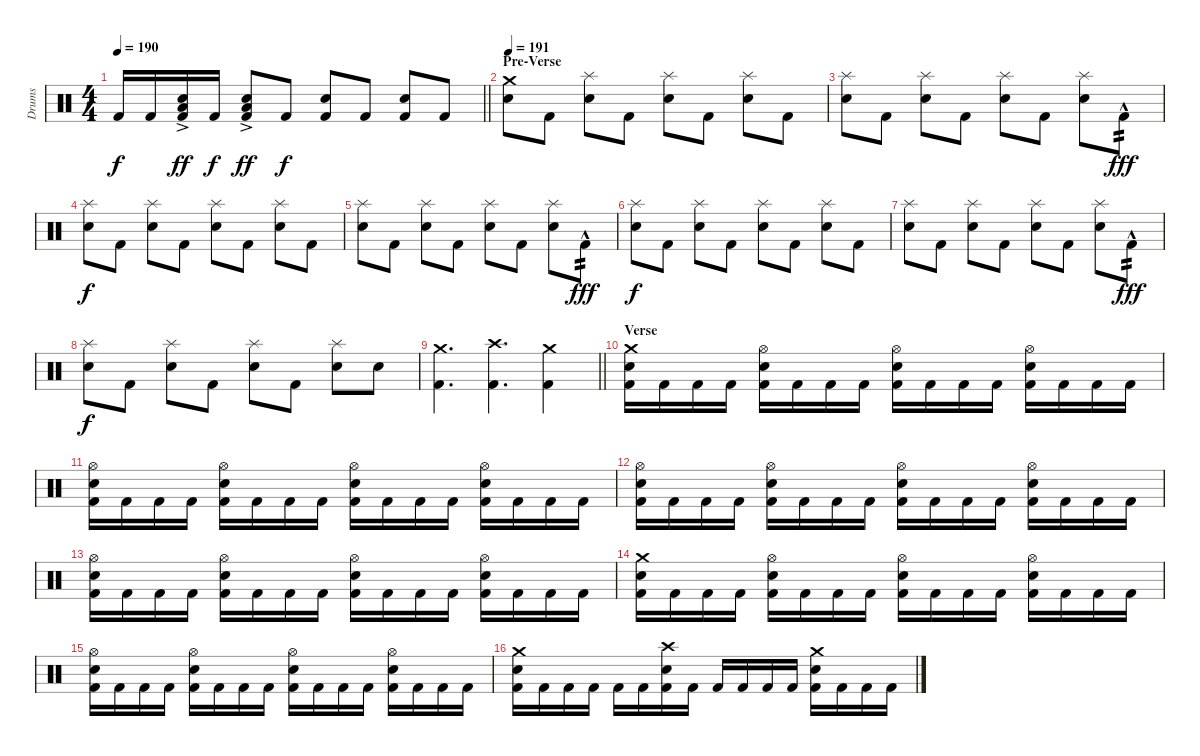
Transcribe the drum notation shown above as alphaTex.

\track ("Drums" "Drums") {instrument percussion}
\staff {score}
\articulation defaults
\ts (4 4)
\tempo 190
\clef neutral
\barLineRight lightlight
\ks c "Kick (hit) 2".16{dy f} "Kick (hit) 2".16
("Kick (hit) 2" "Snare (hit) 2" "Low Floor Tom (hit)"{ac}).16{dy ff} "Kick (hit) 2".16{dy f} ("Kick (hit) 2" "Snare (hit) 2" "Low Floor Tom (hit)"{ac}).8{dy ff} "Kick (hit) 2".8{dy f} ("Kick (hit) 2" "Snare (hit) 2").8 "Kick (hit) 2".8 ("Kick (hit) 2" "Snare (hit) 2").8 "Kick (hit) 2".8 |
\section ("" "Pre-Verse")
\tempo 191
("Snare (hit) 2" "Crash medium (hit)").8 "Kick (hit) 2".8 ("Snare (hit) 2" "Splash (hit)").8 "Kick (hit) 2".8 ("Snare (hit) 2" "Splash (hit)").8 "Kick (hit) 2".8 ("Snare (hit) 2" "Splash (hit)").8 "Kick (hit) 2".8 |
("Snare (hit) 2" "Splash (hit)").8 "Kick (hit) 2".8 ("Snare (hit) 2" "Splash (hit)").8 "Kick (hit) 2".8 ("Snare (hit) 2" "Splash (hit)").8 "Kick (hit) 2".8 ("Snare (hit) 2" "Splash (hit)").8 "Kick (hit) 2"{hac}.8{tp 2 dy fff} |
("Snare (hit) 2" "Splash (hit)").8{dy f} "Kick (hit) 2".8 ("Snare (hit) 2" "Splash (hit)").8 "Kick (hit) 2".8 ("Snare (hit) 2" "Splash (hit)").8 "Kick (hit) 2".8 ("Snare (hit) 2" "Splash (hit)").8 "Kick (hit) 2".8 |
("Snare (hit) 2" "Splash (hit)").8 "Kick (hit) 2".8 ("Snare (hit) 2" "Splash (hit)").8 "Kick (hit) 2".8 ("Snare (hit) 2" "Splash (hit)").8 "Kick (hit) 2".8 ("Snare (hit) 2" "Splash (hit)").8 "Kick (hit) 2"{hac}.8{tp 2 dy fff} |
("Snare (hit) 2" "Splash (hit)").8{dy f} "Kick (hit) 2".8 ("Snare (hit) 2" "Splash (hit)").8 "Kick (hit) 2".8 ("Snare (hit) 2" "Splash (hit)").8 "Kick (hit) 2".8 ("Snare (hit) 2" "Splash (hit)").8 "Kick (hit) 2".8 |
("Snare (hit) 2" "Splash (hit)").8 "Kick (hit) 2".8 ("Snare (hit) 2" "Splash (hit)").8 "Kick (hit) 2".8 ("Snare (hit) 2" "Splash (hit)").8 "Kick (hit) 2".8 ("Snare (hit) 2" "Splash (hit)").8 "Kick (hit) 2"{hac}.8{tp 2 dy fff} |
("Snare (hit) 2" "Splash (hit)").8{dy f} "Kick (hit) 2".8 ("Snare (hit) 2" "Splash (hit)").8 "Kick (hit) 2".8 ("Snare (hit) 2" "Splash (hit)").8 "Kick (hit) 2".8 ("Snare (hit) 2" "Splash (hit)").8 "Snare (hit) 2".8 |
\barLineRight lightlight
("Kick (hit) 2" "Crash medium (hit)").4{d} ("Kick (hit) 2" "Crash high (hit)").4{d} ("Kick (hit) 2" "Crash medium (hit)").4 |
\section ("" "Verse")
("Kick (hit) 2" "Snare (hit) 2" "Crash medium (hit)").16 "Kick (hit) 2".16 "Kick (hit) 2".16 "Kick (hit) 2".16 ("Kick (hit) 2" "Snare (hit) 2" "Hi-Hat (open)").16 "Kick (hit) 2".16 "Kick (hit) 2".16 "Kick (hit) 2".16 ("Kick (hit) 2" "Snare (hit) 2" "Hi-Hat (open)").16 "Kick (hit) 2".16 "Kick (hit) 2".16 "Kick (hit) 2".16 ("Kick (hit) 2" "Snare (hit) 2" "Hi-Hat (open)").16 "Kick (hit) 2".16 "Kick (hit) 2".16 "Kick (hit) 2".16 |
("Kick (hit) 2" "Snare (hit) 2" "Hi-Hat (open)").16 "Kick (hit) 2".16 "Kick (hit) 2".16 "Kick (hit) 2".16 ("Kick (hit) 2" "Snare (hit) 2" "Hi-Hat (open)").16 "Kick (hit) 2".16 "Kick (hit) 2".16 "Kick (hit) 2".16 ("Kick (hit) 2" "Snare (hit) 2" "Hi-Hat (open)").16 "Kick (hit) 2".16 "Kick (hit) 2".16 "Kick (hit) 2".16 ("Kick (hit) 2" "Snare (hit) 2" "Hi-Hat (open)").16 "Kick (hit) 2".16 "Kick (hit) 2".16 "Kick (hit) 2".16 |
("Kick (hit) 2" "Snare (hit) 2" "Hi-Hat (open)").16 "Kick (hit) 2".16 "Kick (hit) 2".16 "Kick (hit) 2".16 ("Kick (hit) 2" "Snare (hit) 2" "Hi-Hat (open)").16 "Kick (hit) 2".16 "Kick (hit) 2".16 "Kick (hit) 2".16 ("Kick (hit) 2" "Snare (hit) 2" "Hi-Hat (open)").16 "Kick (hit) 2".16 "Kick (hit) 2".16 "Kick (hit) 2".16 ("Kick (hit) 2" "Snare (hit) 2" "Hi-Hat (open)").16 "Kick (hit) 2".16 "Kick (hit) 2".16 "Kick (hit) 2".16 |
("Kick (hit) 2" "Snare (hit) 2" "Hi-Hat (open)").16 "Kick (hit) 2".16 "Kick (hit) 2".16 "Kick (hit) 2".16 ("Kick (hit) 2" "Snare (hit) 2" "Hi-Hat (open)").16 "Kick (hit) 2".16 "Kick (hit) 2".16 "Kick (hit) 2".16 ("Kick (hit) 2" "Snare (hit) 2" "Hi-Hat (open)").16 "Kick (hit) 2".16 "Kick (hit) 2".16 "Kick (hit) 2".16 ("Kick (hit) 2" "Snare (hit) 2" "Hi-Hat (open)").16 "Kick (hit) 2".16 "Kick (hit) 2".16 "Kick (hit) 2".16 |
("Kick (hit) 2" "Snare (hit) 2" "Crash medium (hit)").16 "Kick (hit) 2".16 "Kick (hit) 2".16 "Kick (hit) 2".16 ("Kick (hit) 2" "Snare (hit) 2" "Hi-Hat (open)").16 "Kick (hit) 2".16 "Kick (hit) 2".16 "Kick (hit) 2".16 ("Kick (hit) 2" "Snare (hit) 2" "Hi-Hat (open)").16 "Kick (hit) 2".16 "Kick (hit) 2".16 "Kick (hit) 2".16 ("Kick (hit) 2" "Snare (hit) 2" "Hi-Hat (open)").16 "Kick (hit) 2".16 "Kick (hit) 2".16 "Kick (hit) 2".16 |
("Kick (hit) 2" "Snare (hit) 2" "Hi-Hat (open)").16 "Kick (hit) 2".16 "Kick (hit) 2".16 "Kick (hit) 2".16 ("Kick (hit) 2" "Snare (hit) 2" "Hi-Hat (open)").16 "Kick (hit) 2".16 "Kick (hit) 2".16 "Kick (hit) 2".16 ("Kick (hit) 2" "Snare (hit) 2" "Hi-Hat (open)").16 "Kick (hit) 2".16 "Kick (hit) 2".16 "Kick (hit) 2".16 ("Kick (hit) 2" "Snare (hit) 2" "Hi-Hat (open)").16 "Kick (hit) 2".16 "Kick (hit) 2".16 "Kick (hit) 2".16 |
("Kick (hit) 2" "Snare (hit) 2" "Crash medium (hit)").16 "Kick (hit) 2".16 "Kick (hit) 2".16 "Kick (hit) 2".16 "Kick (hit) 2".16 "Kick (hit) 2".16 ("Kick (hit) 2" "Snare (hit) 2" "Crash high (hit)").16 "Kick (hit) 2".16 "Kick (hit) 2".16 "Kick (hit) 2".16 "Kick (hit) 2".16 "Kick (hit) 2".16 ("Kick (hit) 2" "Snare (hit) 2" "Crash medium (hit)").16 "Kick (hit) 2".16 "Kick (hit) 2".16 "Kick (hit) 2".16
